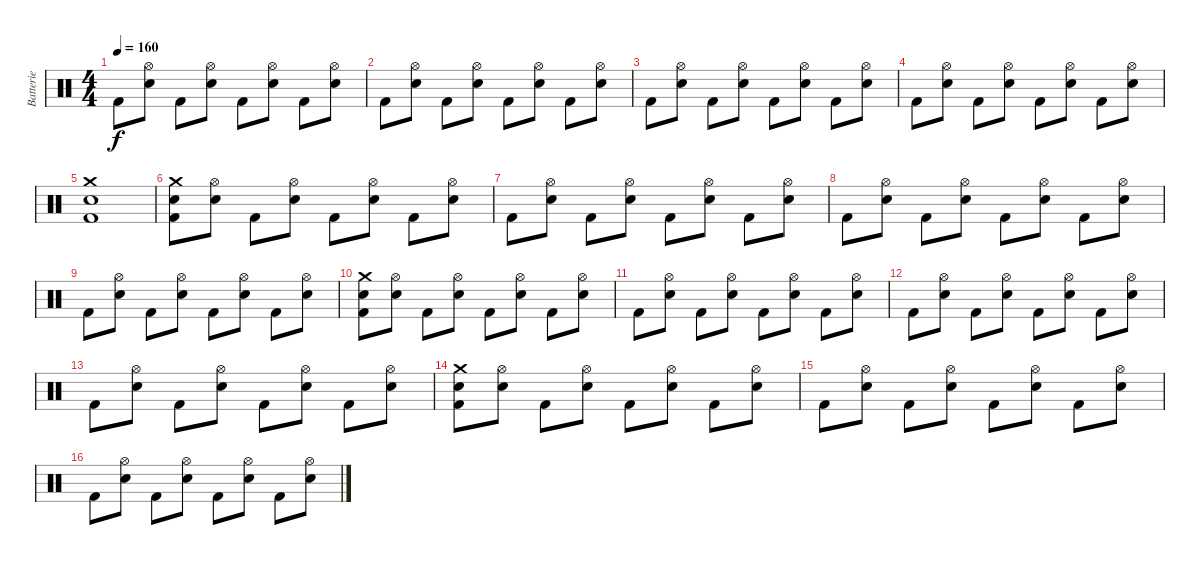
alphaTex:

\track ("Batterie" "Batterie") {instrument percussion}
\staff {score}
\articulation defaults
\ts (4 4)
\tempo 160
\clef neutral
\ks c "Kick (hit) 2".8{dy f}
("Electric Snare (hit)" "Hi-Hat (open)").8 "Kick (hit) 2".8 ("Electric Snare (hit)" "Hi-Hat (open)").8 "Kick (hit) 2".8 ("Electric Snare (hit)" "Hi-Hat (open)").8 "Kick (hit) 2".8 ("Electric Snare (hit)" "Hi-Hat (open)").8 |
"Kick (hit) 2".8 ("Electric Snare (hit)" "Hi-Hat (open)").8 "Kick (hit) 2".8 ("Electric Snare (hit)" "Hi-Hat (open)").8 "Kick (hit) 2".8 ("Electric Snare (hit)" "Hi-Hat (open)").8 "Kick (hit) 2".8 ("Electric Snare (hit)" "Hi-Hat (open)").8 |
"Kick (hit) 2".8 ("Electric Snare (hit)" "Hi-Hat (open)").8 "Kick (hit) 2".8 ("Electric Snare (hit)" "Hi-Hat (open)").8 "Kick (hit) 2".8 ("Electric Snare (hit)" "Hi-Hat (open)").8 "Kick (hit) 2".8 ("Electric Snare (hit)" "Hi-Hat (open)").8 |
"Kick (hit) 2".8 ("Electric Snare (hit)" "Hi-Hat (open)").8 "Kick (hit) 2".8 ("Electric Snare (hit)" "Hi-Hat (open)").8 "Kick (hit) 2".8 ("Electric Snare (hit)" "Hi-Hat (open)").8 "Kick (hit) 2".8 ("Electric Snare (hit)" "Hi-Hat (open)").8 |
("Kick (hit) 2" "Crash medium (hit)" "Electric Snare (hit)").1 |
("Kick (hit) 2" "Electric Snare (hit)" "Crash medium (hit)").8 ("Electric Snare (hit)" "Hi-Hat (open)").8 "Kick (hit) 2".8 ("Electric Snare (hit)" "Hi-Hat (open)").8 "Kick (hit) 2".8 ("Electric Snare (hit)" "Hi-Hat (open)").8 "Kick (hit) 2".8 ("Electric Snare (hit)" "Hi-Hat (open)").8 |
"Kick (hit) 2".8 ("Electric Snare (hit)" "Hi-Hat (open)").8 "Kick (hit) 2".8 ("Electric Snare (hit)" "Hi-Hat (open)").8 "Kick (hit) 2".8 ("Electric Snare (hit)" "Hi-Hat (open)").8 "Kick (hit) 2".8 ("Electric Snare (hit)" "Hi-Hat (open)").8 |
"Kick (hit) 2".8 ("Electric Snare (hit)" "Hi-Hat (open)").8 "Kick (hit) 2".8 ("Electric Snare (hit)" "Hi-Hat (open)").8 "Kick (hit) 2".8 ("Electric Snare (hit)" "Hi-Hat (open)").8 "Kick (hit) 2".8 ("Electric Snare (hit)" "Hi-Hat (open)").8 |
"Kick (hit) 2".8 ("Electric Snare (hit)" "Hi-Hat (open)").8 "Kick (hit) 2".8 ("Electric Snare (hit)" "Hi-Hat (open)").8 "Kick (hit) 2".8 ("Electric Snare (hit)" "Hi-Hat (open)").8 "Kick (hit) 2".8 ("Electric Snare (hit)" "Hi-Hat (open)").8 |
("Kick (hit) 2" "Electric Snare (hit)" "Crash medium (hit)").8 ("Electric Snare (hit)" "Hi-Hat (open)").8 "Kick (hit) 2".8 ("Electric Snare (hit)" "Hi-Hat (open)").8 "Kick (hit) 2".8 ("Electric Snare (hit)" "Hi-Hat (open)").8 "Kick (hit) 2".8 ("Electric Snare (hit)" "Hi-Hat (open)").8 |
"Kick (hit) 2".8 ("Electric Snare (hit)" "Hi-Hat (open)").8 "Kick (hit) 2".8 ("Electric Snare (hit)" "Hi-Hat (open)").8 "Kick (hit) 2".8 ("Electric Snare (hit)" "Hi-Hat (open)").8 "Kick (hit) 2".8 ("Electric Snare (hit)" "Hi-Hat (open)").8 |
"Kick (hit) 2".8 ("Electric Snare (hit)" "Hi-Hat (open)").8 "Kick (hit) 2".8 ("Electric Snare (hit)" "Hi-Hat (open)").8 "Kick (hit) 2".8 ("Electric Snare (hit)" "Hi-Hat (open)").8 "Kick (hit) 2".8 ("Electric Snare (hit)" "Hi-Hat (open)").8 |
"Kick (hit) 2".8 ("Electric Snare (hit)" "Hi-Hat (open)").8 "Kick (hit) 2".8 ("Electric Snare (hit)" "Hi-Hat (open)").8 "Kick (hit) 2".8 ("Electric Snare (hit)" "Hi-Hat (open)").8 "Kick (hit) 2".8 ("Electric Snare (hit)" "Hi-Hat (open)").8 |
("Kick (hit) 2" "Electric Snare (hit)" "Crash medium (hit)").8 ("Electric Snare (hit)" "Hi-Hat (open)").8 "Kick (hit) 2".8 ("Electric Snare (hit)" "Hi-Hat (open)").8 "Kick (hit) 2".8 ("Electric Snare (hit)" "Hi-Hat (open)").8 "Kick (hit) 2".8 ("Electric Snare (hit)" "Hi-Hat (open)").8 |
"Kick (hit) 2".8 ("Electric Snare (hit)" "Hi-Hat (open)").8 "Kick (hit) 2".8 ("Electric Snare (hit)" "Hi-Hat (open)").8 "Kick (hit) 2".8 ("Electric Snare (hit)" "Hi-Hat (open)").8 "Kick (hit) 2".8 ("Electric Snare (hit)" "Hi-Hat (open)").8 |
"Kick (hit) 2".8 ("Electric Snare (hit)" "Hi-Hat (open)").8 "Kick (hit) 2".8 ("Electric Snare (hit)" "Hi-Hat (open)").8 "Kick (hit) 2".8 ("Electric Snare (hit)" "Hi-Hat (open)").8 "Kick (hit) 2".8 ("Electric Snare (hit)" "Hi-Hat (open)").8
